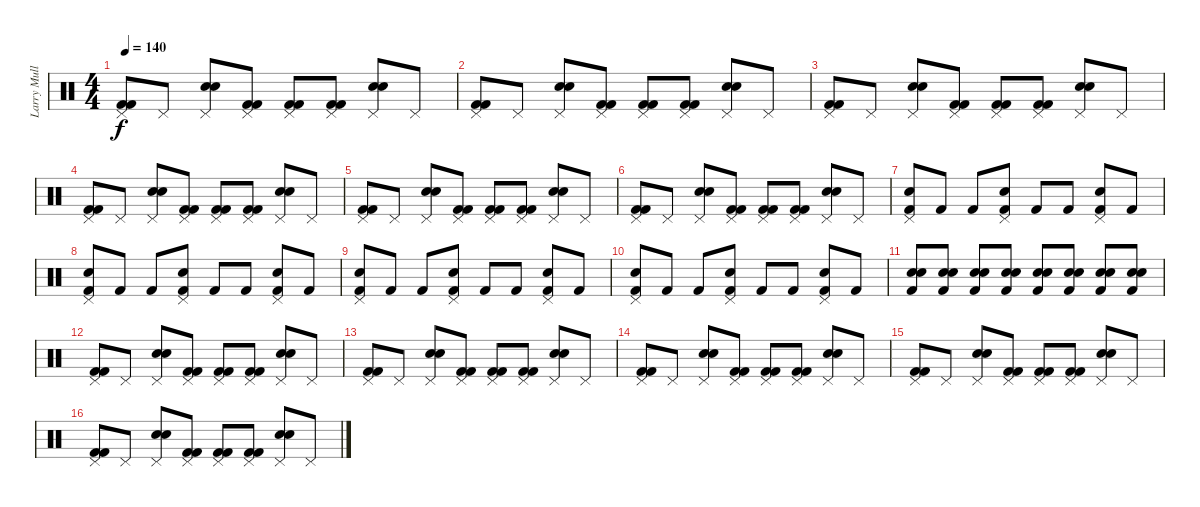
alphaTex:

\track ("Larry Mullen JR." "Larry Mull") {instrument percussion}
\staff {score}
\articulation defaults
\ts (4 4)
\tempo 140
\clef neutral
\ks c
("Kick (hit) 2" "Kick (hit) 2" "Pedal Hi-Hat (hit)").8{dy f} "Pedal Hi-Hat (hit)".8 ("Electric Snare (hit)" "Snare (hit) 2" "Pedal Hi-Hat (hit)").8 ("Kick (hit) 2" "Kick (hit) 2" "Pedal Hi-Hat (hit)").8 ("Kick (hit) 2" "Kick (hit) 2" "Pedal Hi-Hat (hit)").8 ("Kick (hit) 2" "Kick (hit) 2" "Pedal Hi-Hat (hit)").8 ("Snare (hit) 2" "Electric Snare (hit)" "Pedal Hi-Hat (hit)").8 "Pedal Hi-Hat (hit)".8 |
("Kick (hit) 2" "Kick (hit) 2" "Pedal Hi-Hat (hit)").8 "Pedal Hi-Hat (hit)".8 ("Electric Snare (hit)" "Snare (hit) 2" "Pedal Hi-Hat (hit)").8 ("Kick (hit) 2" "Kick (hit) 2" "Pedal Hi-Hat (hit)").8 ("Kick (hit) 2" "Kick (hit) 2" "Pedal Hi-Hat (hit)").8 ("Kick (hit) 2" "Kick (hit) 2" "Pedal Hi-Hat (hit)").8 ("Snare (hit) 2" "Electric Snare (hit)" "Pedal Hi-Hat (hit)").8 "Pedal Hi-Hat (hit)".8 |
("Kick (hit) 2" "Kick (hit) 2" "Pedal Hi-Hat (hit)").8 "Pedal Hi-Hat (hit)".8 ("Electric Snare (hit)" "Snare (hit) 2" "Pedal Hi-Hat (hit)").8 ("Kick (hit) 2" "Kick (hit) 2" "Pedal Hi-Hat (hit)").8 ("Kick (hit) 2" "Kick (hit) 2" "Pedal Hi-Hat (hit)").8 ("Kick (hit) 2" "Kick (hit) 2" "Pedal Hi-Hat (hit)").8 ("Snare (hit) 2" "Electric Snare (hit)" "Pedal Hi-Hat (hit)").8 "Pedal Hi-Hat (hit)".8 |
("Kick (hit) 2" "Kick (hit) 2" "Pedal Hi-Hat (hit)").8 "Pedal Hi-Hat (hit)".8 ("Electric Snare (hit)" "Snare (hit) 2" "Pedal Hi-Hat (hit)").8 ("Kick (hit) 2" "Kick (hit) 2" "Pedal Hi-Hat (hit)").8 ("Kick (hit) 2" "Kick (hit) 2" "Pedal Hi-Hat (hit)").8 ("Kick (hit) 2" "Kick (hit) 2" "Pedal Hi-Hat (hit)").8 ("Snare (hit) 2" "Electric Snare (hit)" "Pedal Hi-Hat (hit)").8 "Pedal Hi-Hat (hit)".8 |
("Kick (hit) 2" "Kick (hit) 2" "Pedal Hi-Hat (hit)").8 "Pedal Hi-Hat (hit)".8 ("Electric Snare (hit)" "Snare (hit) 2" "Pedal Hi-Hat (hit)").8 ("Kick (hit) 2" "Kick (hit) 2" "Pedal Hi-Hat (hit)").8 ("Kick (hit) 2" "Kick (hit) 2" "Pedal Hi-Hat (hit)").8 ("Kick (hit) 2" "Kick (hit) 2" "Pedal Hi-Hat (hit)").8 ("Snare (hit) 2" "Electric Snare (hit)" "Pedal Hi-Hat (hit)").8 "Pedal Hi-Hat (hit)".8 |
("Kick (hit) 2" "Kick (hit) 2" "Pedal Hi-Hat (hit)").8 "Pedal Hi-Hat (hit)".8 ("Electric Snare (hit)" "Snare (hit) 2" "Pedal Hi-Hat (hit)").8 ("Kick (hit) 2" "Kick (hit) 2" "Pedal Hi-Hat (hit)").8 ("Kick (hit) 2" "Kick (hit) 2" "Pedal Hi-Hat (hit)").8 ("Kick (hit) 2" "Kick (hit) 2" "Pedal Hi-Hat (hit)").8 ("Snare (hit) 2" "Electric Snare (hit)" "Pedal Hi-Hat (hit)").8 "Pedal Hi-Hat (hit)".8 |
("Electric Snare (hit)" "Kick (hit) 2" "Pedal Hi-Hat (hit)").8 "Kick (hit) 2".8 "Kick (hit) 2".8 ("Electric Snare (hit)" "Kick (hit) 2" "Pedal Hi-Hat (hit)").8 "Kick (hit) 2".8 "Kick (hit) 2".8 ("Electric Snare (hit)" "Kick (hit) 2" "Pedal Hi-Hat (hit)").8 "Kick (hit) 2".8 |
("Electric Snare (hit)" "Kick (hit) 2" "Pedal Hi-Hat (hit)").8 "Kick (hit) 2".8 "Kick (hit) 2".8 ("Electric Snare (hit)" "Kick (hit) 2" "Pedal Hi-Hat (hit)").8 "Kick (hit) 2".8 "Kick (hit) 2".8 ("Electric Snare (hit)" "Kick (hit) 2" "Pedal Hi-Hat (hit)").8 "Kick (hit) 2".8 |
("Electric Snare (hit)" "Kick (hit) 2" "Pedal Hi-Hat (hit)").8 "Kick (hit) 2".8 "Kick (hit) 2".8 ("Electric Snare (hit)" "Kick (hit) 2" "Pedal Hi-Hat (hit)").8 "Kick (hit) 2".8 "Kick (hit) 2".8 ("Electric Snare (hit)" "Kick (hit) 2" "Pedal Hi-Hat (hit)").8 "Kick (hit) 2".8 |
("Electric Snare (hit)" "Kick (hit) 2" "Pedal Hi-Hat (hit)").8 "Kick (hit) 2".8 "Kick (hit) 2".8 ("Electric Snare (hit)" "Kick (hit) 2" "Pedal Hi-Hat (hit)").8 "Kick (hit) 2".8 "Kick (hit) 2".8 ("Electric Snare (hit)" "Kick (hit) 2" "Pedal Hi-Hat (hit)").8 "Kick (hit) 2".8 |
("Kick (hit) 2" "Electric Snare (hit)" "Snare (hit) 2").8 ("Kick (hit) 2" "Electric Snare (hit)" "Snare (hit) 2").8 ("Kick (hit) 2" "Electric Snare (hit)" "Snare (hit) 2").8 ("Kick (hit) 2" "Electric Snare (hit)" "Snare (hit) 2").8 ("Kick (hit) 2" "Electric Snare (hit)" "Snare (hit) 2").8 ("Kick (hit) 2" "Electric Snare (hit)" "Snare (hit) 2").8 ("Kick (hit) 2" "Electric Snare (hit)" "Snare (hit) 2").8 ("Kick (hit) 2" "Electric Snare (hit)" "Snare (hit) 2").8 |
("Kick (hit) 2" "Kick (hit) 2" "Pedal Hi-Hat (hit)").8 "Pedal Hi-Hat (hit)".8 ("Electric Snare (hit)" "Snare (hit) 2" "Pedal Hi-Hat (hit)").8 ("Kick (hit) 2" "Kick (hit) 2" "Pedal Hi-Hat (hit)").8 ("Kick (hit) 2" "Kick (hit) 2" "Pedal Hi-Hat (hit)").8 ("Kick (hit) 2" "Kick (hit) 2" "Pedal Hi-Hat (hit)").8 ("Snare (hit) 2" "Electric Snare (hit)" "Pedal Hi-Hat (hit)").8 "Pedal Hi-Hat (hit)".8 |
("Kick (hit) 2" "Kick (hit) 2" "Pedal Hi-Hat (hit)").8 "Pedal Hi-Hat (hit)".8 ("Electric Snare (hit)" "Snare (hit) 2" "Pedal Hi-Hat (hit)").8 ("Kick (hit) 2" "Kick (hit) 2" "Pedal Hi-Hat (hit)").8 ("Kick (hit) 2" "Kick (hit) 2" "Pedal Hi-Hat (hit)").8 ("Kick (hit) 2" "Kick (hit) 2" "Pedal Hi-Hat (hit)").8 ("Snare (hit) 2" "Electric Snare (hit)" "Pedal Hi-Hat (hit)").8 "Pedal Hi-Hat (hit)".8 |
("Kick (hit) 2" "Kick (hit) 2" "Pedal Hi-Hat (hit)").8 "Pedal Hi-Hat (hit)".8 ("Electric Snare (hit)" "Snare (hit) 2" "Pedal Hi-Hat (hit)").8 ("Kick (hit) 2" "Kick (hit) 2" "Pedal Hi-Hat (hit)").8 ("Kick (hit) 2" "Kick (hit) 2" "Pedal Hi-Hat (hit)").8 ("Kick (hit) 2" "Kick (hit) 2" "Pedal Hi-Hat (hit)").8 ("Snare (hit) 2" "Electric Snare (hit)" "Pedal Hi-Hat (hit)").8 "Pedal Hi-Hat (hit)".8 |
("Kick (hit) 2" "Kick (hit) 2" "Pedal Hi-Hat (hit)").8 "Pedal Hi-Hat (hit)".8 ("Electric Snare (hit)" "Snare (hit) 2" "Pedal Hi-Hat (hit)").8 ("Kick (hit) 2" "Kick (hit) 2" "Pedal Hi-Hat (hit)").8 ("Kick (hit) 2" "Kick (hit) 2" "Pedal Hi-Hat (hit)").8 ("Kick (hit) 2" "Kick (hit) 2" "Pedal Hi-Hat (hit)").8 ("Snare (hit) 2" "Electric Snare (hit)" "Pedal Hi-Hat (hit)").8 "Pedal Hi-Hat (hit)".8 |
("Kick (hit) 2" "Kick (hit) 2" "Pedal Hi-Hat (hit)").8 "Pedal Hi-Hat (hit)".8 ("Electric Snare (hit)" "Snare (hit) 2" "Pedal Hi-Hat (hit)").8 ("Kick (hit) 2" "Kick (hit) 2" "Pedal Hi-Hat (hit)").8 ("Kick (hit) 2" "Kick (hit) 2" "Pedal Hi-Hat (hit)").8 ("Kick (hit) 2" "Kick (hit) 2" "Pedal Hi-Hat (hit)").8 ("Snare (hit) 2" "Electric Snare (hit)" "Pedal Hi-Hat (hit)").8 "Pedal Hi-Hat (hit)".8
